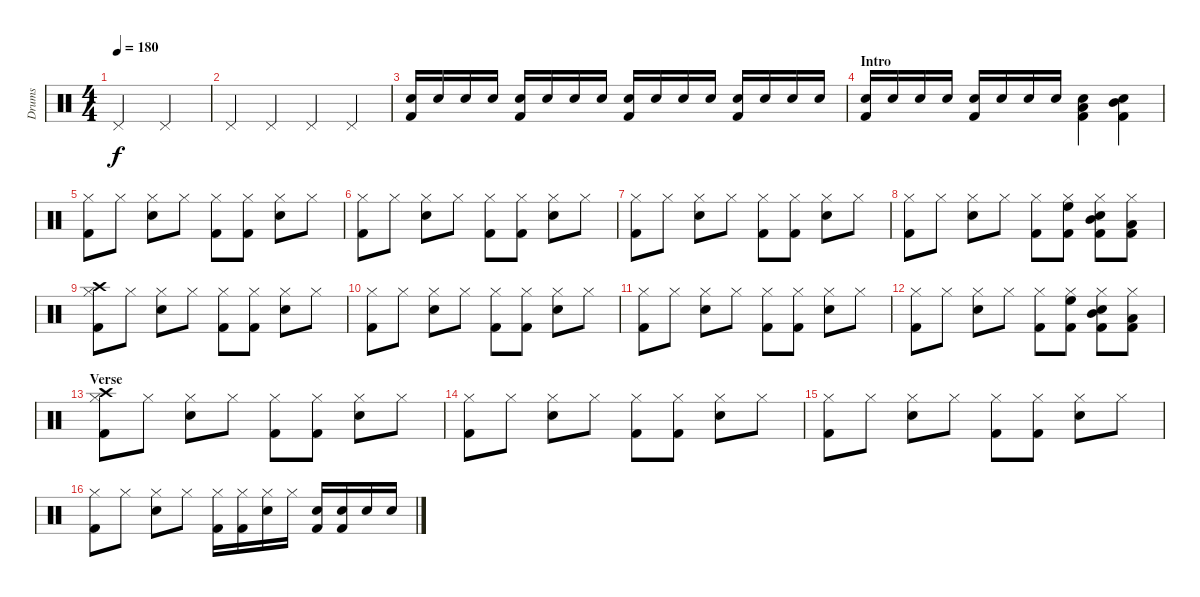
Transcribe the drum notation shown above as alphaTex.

\track ("Drums" "Drums") {instrument percussion}
\staff {score}
\articulation defaults
\ts (4 4)
\tempo 180
\clef neutral
\ks c "Pedal Hi-Hat (hit)".2{dy f} "Pedal Hi-Hat (hit)".2
|
"Pedal Hi-Hat (hit)".4 "Pedal Hi-Hat (hit)".4 "Pedal Hi-Hat (hit)".4 "Pedal Hi-Hat (hit)".4 |
("Snare (hit) 2" "Kick (hit) 2").16 "Snare (hit) 2".16 "Snare (hit) 2".16 "Snare (hit) 2".16 ("Snare (hit) 2" "Kick (hit) 2").16 "Snare (hit) 2".16 "Snare (hit) 2".16 "Snare (hit) 2".16 ("Snare (hit) 2" "Kick (hit) 2").16 "Snare (hit) 2".16 "Snare (hit) 2".16 "Snare (hit) 2".16 ("Snare (hit) 2" "Kick (hit) 2").16 "Snare (hit) 2".16 "Snare (hit) 2".16 "Snare (hit) 2".16 |
\section ("" "Intro")
("Snare (hit) 2" "Kick (hit) 2").16 "Snare (hit) 2".16 "Snare (hit) 2".16 "Snare (hit) 2".16 ("Snare (hit) 2" "Kick (hit) 2").16 "Snare (hit) 2".16 "Snare (hit) 2".16 "Snare (hit) 2".16 ("Snare (hit) 2" "Low Tom (hit)" "Kick (hit) 2").4 ("Snare (hit) 2" "Mid Tom (hit)" "Kick (hit) 2").4 |
("Hi-Hat (closed)" "Kick (hit) 2").8 "Hi-Hat (closed)".8 ("Hi-Hat (closed)" "Snare (hit) 2").8 "Hi-Hat (closed)".8 ("Hi-Hat (closed)" "Kick (hit) 2").8 ("Hi-Hat (closed)" "Kick (hit) 2").8 ("Hi-Hat (closed)" "Snare (hit) 2").8 "Hi-Hat (closed)".8 |
("Hi-Hat (closed)" "Kick (hit) 2").8 "Hi-Hat (closed)".8 ("Hi-Hat (closed)" "Snare (hit) 2").8 "Hi-Hat (closed)".8 ("Hi-Hat (closed)" "Kick (hit) 2").8 ("Hi-Hat (closed)" "Kick (hit) 2").8 ("Hi-Hat (closed)" "Snare (hit) 2").8 "Hi-Hat (closed)".8 |
("Hi-Hat (closed)" "Kick (hit) 2").8 "Hi-Hat (closed)".8 ("Hi-Hat (closed)" "Snare (hit) 2").8 "Hi-Hat (closed)".8 ("Hi-Hat (closed)" "Kick (hit) 2").8 ("Hi-Hat (closed)" "Kick (hit) 2").8 ("Hi-Hat (closed)" "Snare (hit) 2").8 "Hi-Hat (closed)".8 |
("Hi-Hat (closed)" "Kick (hit) 2").8 "Hi-Hat (closed)".8 ("Hi-Hat (closed)" "Snare (hit) 2").8 "Hi-Hat (closed)".8 ("Hi-Hat (closed)" "Kick (hit) 2").8 ("Hi-Hat (closed)" "High Floor Tom (hit)" "Kick (hit) 2").8 ("Hi-Hat (closed)" "Mid Tom (hit)" "Snare (hit) 2" "Kick (hit) 2").8 ("Hi-Hat (closed)" "Low Tom (hit)" "Kick (hit) 2").8 |
("Hi-Hat (closed)" "Crash high (hit)" "Kick (hit) 2").8 "Hi-Hat (closed)".8 ("Hi-Hat (closed)" "Snare (hit) 2").8 "Hi-Hat (closed)".8 ("Hi-Hat (closed)" "Kick (hit) 2").8 ("Hi-Hat (closed)" "Kick (hit) 2").8 ("Hi-Hat (closed)" "Snare (hit) 2").8 "Hi-Hat (closed)".8 |
("Hi-Hat (closed)" "Kick (hit) 2").8 "Hi-Hat (closed)".8 ("Hi-Hat (closed)" "Snare (hit) 2").8 "Hi-Hat (closed)".8 ("Hi-Hat (closed)" "Kick (hit) 2").8 ("Hi-Hat (closed)" "Kick (hit) 2").8 ("Hi-Hat (closed)" "Snare (hit) 2").8 "Hi-Hat (closed)".8 |
("Hi-Hat (closed)" "Kick (hit) 2").8 "Hi-Hat (closed)".8 ("Hi-Hat (closed)" "Snare (hit) 2").8 "Hi-Hat (closed)".8 ("Hi-Hat (closed)" "Kick (hit) 2").8 ("Hi-Hat (closed)" "Kick (hit) 2").8 ("Hi-Hat (closed)" "Snare (hit) 2").8 "Hi-Hat (closed)".8 |
("Hi-Hat (closed)" "Kick (hit) 2").8 "Hi-Hat (closed)".8 ("Hi-Hat (closed)" "Snare (hit) 2").8 "Hi-Hat (closed)".8 ("Hi-Hat (closed)" "Kick (hit) 2").8 ("Hi-Hat (closed)" "High Floor Tom (hit)" "Kick (hit) 2").8 ("Hi-Hat (closed)" "Mid Tom (hit)" "Snare (hit) 2" "Kick (hit) 2").8 ("Hi-Hat (closed)" "Low Tom (hit)" "Kick (hit) 2").8 |
\section ("" "Verse")
("Hi-Hat (closed)" "Crash high (hit)" "Kick (hit) 2").8 "Hi-Hat (closed)".8 ("Hi-Hat (closed)" "Snare (hit) 2").8 "Hi-Hat (closed)".8 ("Hi-Hat (closed)" "Kick (hit) 2").8 ("Hi-Hat (closed)" "Kick (hit) 2").8 ("Hi-Hat (closed)" "Snare (hit) 2").8 "Hi-Hat (closed)".8 |
("Hi-Hat (closed)" "Kick (hit) 2").8 "Hi-Hat (closed)".8 ("Hi-Hat (closed)" "Snare (hit) 2").8 "Hi-Hat (closed)".8 ("Hi-Hat (closed)" "Kick (hit) 2").8 ("Hi-Hat (closed)" "Kick (hit) 2").8 ("Hi-Hat (closed)" "Snare (hit) 2").8 "Hi-Hat (closed)".8 |
("Hi-Hat (closed)" "Kick (hit) 2").8 "Hi-Hat (closed)".8 ("Hi-Hat (closed)" "Snare (hit) 2").8 "Hi-Hat (closed)".8 ("Hi-Hat (closed)" "Kick (hit) 2").8 ("Hi-Hat (closed)" "Kick (hit) 2").8 ("Hi-Hat (closed)" "Snare (hit) 2").8 "Hi-Hat (closed)".8 |
("Hi-Hat (closed)" "Kick (hit) 2").8 "Hi-Hat (closed)".8 ("Hi-Hat (closed)" "Snare (hit) 2").8 "Hi-Hat (closed)".8 ("Hi-Hat (closed)" "Kick (hit) 2").16 ("Hi-Hat (closed)" "Kick (hit) 2").16 ("Hi-Hat (closed)" "Snare (hit) 2").16 "Hi-Hat (closed)".16 ("Snare (hit) 2" "Kick (hit) 2").16 ("Snare (hit) 2" "Kick (hit) 2").16 "Snare (hit) 2".16 "Snare (hit) 2".16
